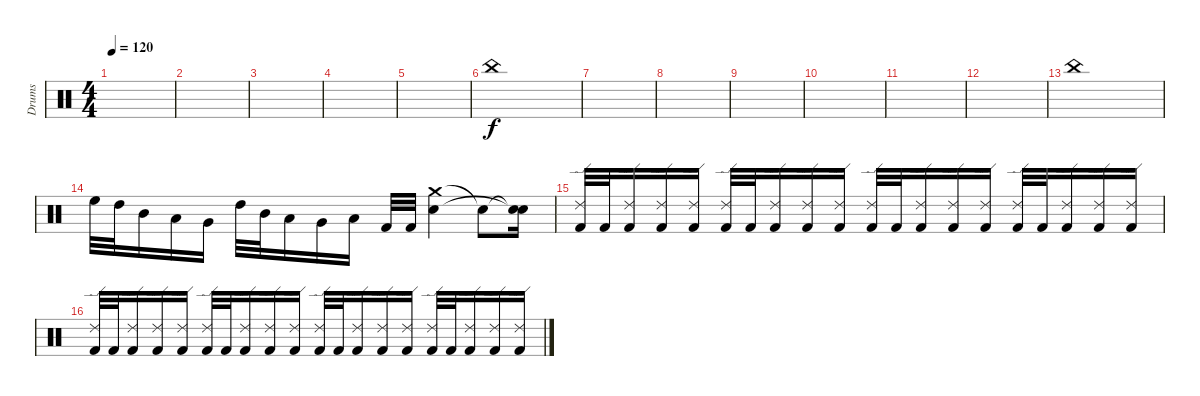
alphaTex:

\track ("Drums" "Drums") {instrument percussion}
\staff {score}
\articulation defaults
\ts (4 4)
\tempo 120
\clef neutral
\ks c
|
|
|
|
|
"China (hit)".1 |
|
|
|
|
|
|
"China (hit)".1 |
"High Floor Tom (hit)".32 "High Tom (hit)".32 "Mid Tom (hit)".16 "Low Tom (hit)".16 "Very Low Tom (hit)".16 "High Tom (hit)".32 "Mid Tom (hit)".32 "Low Tom (hit)".16 "Very Low Tom (hit)".16 "Low Floor Tom (hit)".16 "Kick (hit) 2".32 "Kick (hit) 2".32 ("Crash medium (hit)" "Electric Snare (hit)").4 "Snare (hit)"{t}.8 ("Snare (hit)"{t} "Snare (hit)"{t}).16 |
("Ride (edge) 2" "Kick (hit) 2").32 "Kick (hit) 2".32 ("Ride (edge) 2" "Kick (hit) 2").16 ("Ride (edge) 2" "Kick (hit) 2").16 ("Ride (edge) 2" "Kick (hit) 2").16 ("Ride (edge) 2" "Kick (hit) 2").32 "Kick (hit) 2".32 ("Ride (edge) 2" "Kick (hit) 2").16 ("Ride (edge) 2" "Kick (hit) 2").16 ("Ride (edge) 2" "Kick (hit) 2").16 ("Ride (edge) 2" "Kick (hit) 2").32 "Kick (hit) 2".32 ("Ride (edge) 2" "Kick (hit) 2").16 ("Ride (edge) 2" "Kick (hit) 2").16 ("Ride (edge) 2" "Kick (hit) 2").16 ("Ride (edge) 2" "Kick (hit) 2").32 "Kick (hit) 2".32 ("Ride (edge) 2" "Kick (hit) 2").16 ("Ride (edge) 2" "Kick (hit) 2").16 ("Ride (edge) 2" "Kick (hit) 2").16 |
("Ride (edge) 2" "Kick (hit) 2").32 "Kick (hit) 2".32 ("Ride (edge) 2" "Kick (hit) 2").16 ("Ride (edge) 2" "Kick (hit) 2").16 ("Ride (edge) 2" "Kick (hit) 2").16 ("Ride (edge) 2" "Kick (hit) 2").32 "Kick (hit) 2".32 ("Ride (edge) 2" "Kick (hit) 2").16 ("Ride (edge) 2" "Kick (hit) 2").16 ("Ride (edge) 2" "Kick (hit) 2").16 ("Ride (edge) 2" "Kick (hit) 2").32 "Kick (hit) 2".32 ("Ride (edge) 2" "Kick (hit) 2").16 ("Ride (edge) 2" "Kick (hit) 2").16 ("Ride (edge) 2" "Kick (hit) 2").16 ("Ride (edge) 2" "Kick (hit) 2").32 "Kick (hit) 2".32 ("Ride (edge) 2" "Kick (hit) 2").16 ("Ride (edge) 2" "Kick (hit) 2").16 ("Ride (edge) 2" "Kick (hit) 2").16
